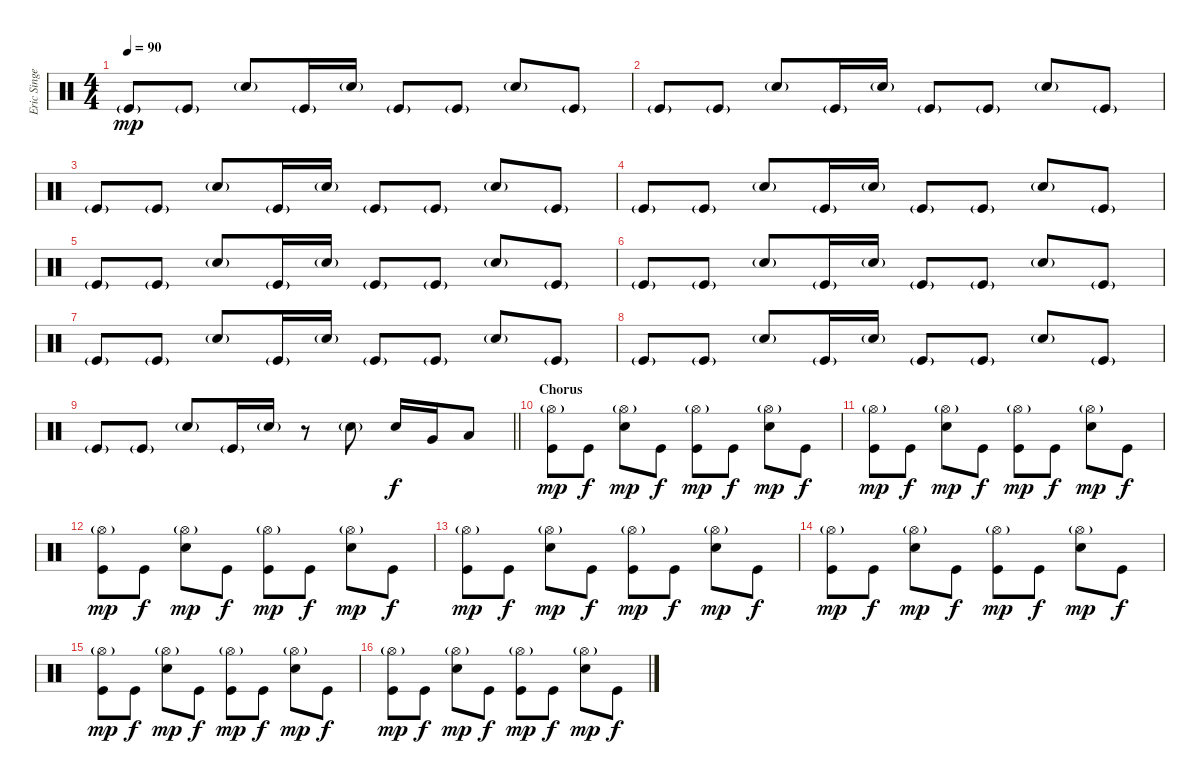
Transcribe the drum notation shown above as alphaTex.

\track ("Eric Singer (Drums)" "Eric Singe") {instrument percussion}
\staff {score}
\articulation defaults
\ts (4 4)
\tempo 90
\clef neutral
\ks c "Kick (hit)"{g}.8{dy mp} "Kick (hit)"{g}.8 "Snare (hit) 2"{g}.8 "Kick (hit)"{g}.16 "Snare (hit) 2"{g}.16 "Kick (hit)"{g}.8 "Kick (hit)"{g}.8 "Snare (hit) 2"{g}.8 "Kick (hit)"{g}.8
|
"Kick (hit)"{g}.8 "Kick (hit)"{g}.8 "Snare (hit) 2"{g}.8 "Kick (hit)"{g}.16 "Snare (hit) 2"{g}.16 "Kick (hit)"{g}.8 "Kick (hit)"{g}.8 "Snare (hit) 2"{g}.8 "Kick (hit)"{g}.8 |
"Kick (hit)"{g}.8 "Kick (hit)"{g}.8 "Snare (hit) 2"{g}.8 "Kick (hit)"{g}.16 "Snare (hit) 2"{g}.16 "Kick (hit)"{g}.8 "Kick (hit)"{g}.8 "Snare (hit) 2"{g}.8 "Kick (hit)"{g}.8 |
"Kick (hit)"{g}.8 "Kick (hit)"{g}.8 "Snare (hit) 2"{g}.8 "Kick (hit)"{g}.16 "Snare (hit) 2"{g}.16 "Kick (hit)"{g}.8 "Kick (hit)"{g}.8 "Snare (hit) 2"{g}.8 "Kick (hit)"{g}.8 |
"Kick (hit)"{g}.8 "Kick (hit)"{g}.8 "Snare (hit) 2"{g}.8 "Kick (hit)"{g}.16 "Snare (hit) 2"{g}.16 "Kick (hit)"{g}.8 "Kick (hit)"{g}.8 "Snare (hit) 2"{g}.8 "Kick (hit)"{g}.8 |
"Kick (hit)"{g}.8 "Kick (hit)"{g}.8 "Snare (hit) 2"{g}.8 "Kick (hit)"{g}.16 "Snare (hit) 2"{g}.16 "Kick (hit)"{g}.8 "Kick (hit)"{g}.8 "Snare (hit) 2"{g}.8 "Kick (hit)"{g}.8 |
"Kick (hit)"{g}.8 "Kick (hit)"{g}.8 "Snare (hit) 2"{g}.8 "Kick (hit)"{g}.16 "Snare (hit) 2"{g}.16 "Kick (hit)"{g}.8 "Kick (hit)"{g}.8 "Snare (hit) 2"{g}.8 "Kick (hit)"{g}.8 |
"Kick (hit)"{g}.8 "Kick (hit)"{g}.8 "Snare (hit) 2"{g}.8 "Kick (hit)"{g}.16 "Snare (hit) 2"{g}.16 "Kick (hit)"{g}.8 "Kick (hit)"{g}.8 "Snare (hit) 2"{g}.8 "Kick (hit)"{g}.8 |
\barLineRight lightlight "Kick (hit)"{g}.8 "Kick (hit)"{g}.8 "Snare (hit) 2"{g}.8 "Kick (hit)"{g}.16 "Snare (hit) 2"{g}.16
r.8 "Snare (hit) 2"{g}.8 "Snare (hit) 2".16{dy f} "Very Low Tom (hit)".16 "Low Floor Tom (hit)".8 |
\section ("" "Chorus")
("Hi-Hat (open)"{g} "Kick (hit)").8{dy mp} "Kick (hit)".8{dy f} ("Hi-Hat (open)"{g} "Snare (hit) 2").8{dy mp} "Kick (hit)".8{dy f} ("Hi-Hat (open)"{g} "Kick (hit)").8{dy mp} "Kick (hit)".8{dy f} ("Hi-Hat (open)"{g} "Snare (hit) 2").8{dy mp} "Kick (hit)".8{dy f} |
("Hi-Hat (open)"{g} "Kick (hit)").8{dy mp} "Kick (hit)".8{dy f} ("Hi-Hat (open)"{g} "Snare (hit) 2").8{dy mp} "Kick (hit)".8{dy f} ("Hi-Hat (open)"{g} "Kick (hit)").8{dy mp} "Kick (hit)".8{dy f} ("Hi-Hat (open)"{g} "Snare (hit) 2").8{dy mp} "Kick (hit)".8{dy f} |
("Hi-Hat (open)"{g} "Kick (hit)").8{dy mp} "Kick (hit)".8{dy f} ("Hi-Hat (open)"{g} "Snare (hit) 2").8{dy mp} "Kick (hit)".8{dy f} ("Hi-Hat (open)"{g} "Kick (hit)").8{dy mp} "Kick (hit)".8{dy f} ("Hi-Hat (open)"{g} "Snare (hit) 2").8{dy mp} "Kick (hit)".8{dy f} |
("Hi-Hat (open)"{g} "Kick (hit)").8{dy mp} "Kick (hit)".8{dy f} ("Hi-Hat (open)"{g} "Snare (hit) 2").8{dy mp} "Kick (hit)".8{dy f} ("Hi-Hat (open)"{g} "Kick (hit)").8{dy mp} "Kick (hit)".8{dy f} ("Hi-Hat (open)"{g} "Snare (hit) 2").8{dy mp} "Kick (hit)".8{dy f} |
("Hi-Hat (open)"{g} "Kick (hit)").8{dy mp} "Kick (hit)".8{dy f} ("Hi-Hat (open)"{g} "Snare (hit) 2").8{dy mp} "Kick (hit)".8{dy f} ("Hi-Hat (open)"{g} "Kick (hit)").8{dy mp} "Kick (hit)".8{dy f} ("Hi-Hat (open)"{g} "Snare (hit) 2").8{dy mp} "Kick (hit)".8{dy f} |
("Hi-Hat (open)"{g} "Kick (hit)").8{dy mp} "Kick (hit)".8{dy f} ("Hi-Hat (open)"{g} "Snare (hit) 2").8{dy mp} "Kick (hit)".8{dy f} ("Hi-Hat (open)"{g} "Kick (hit)").8{dy mp} "Kick (hit)".8{dy f} ("Hi-Hat (open)"{g} "Snare (hit) 2").8{dy mp} "Kick (hit)".8{dy f} |
("Hi-Hat (open)"{g} "Kick (hit)").8{dy mp} "Kick (hit)".8{dy f} ("Hi-Hat (open)"{g} "Snare (hit) 2").8{dy mp} "Kick (hit)".8{dy f} ("Hi-Hat (open)"{g} "Kick (hit)").8{dy mp} "Kick (hit)".8{dy f} ("Hi-Hat (open)"{g} "Snare (hit) 2").8{dy mp} "Kick (hit)".8{dy f}
